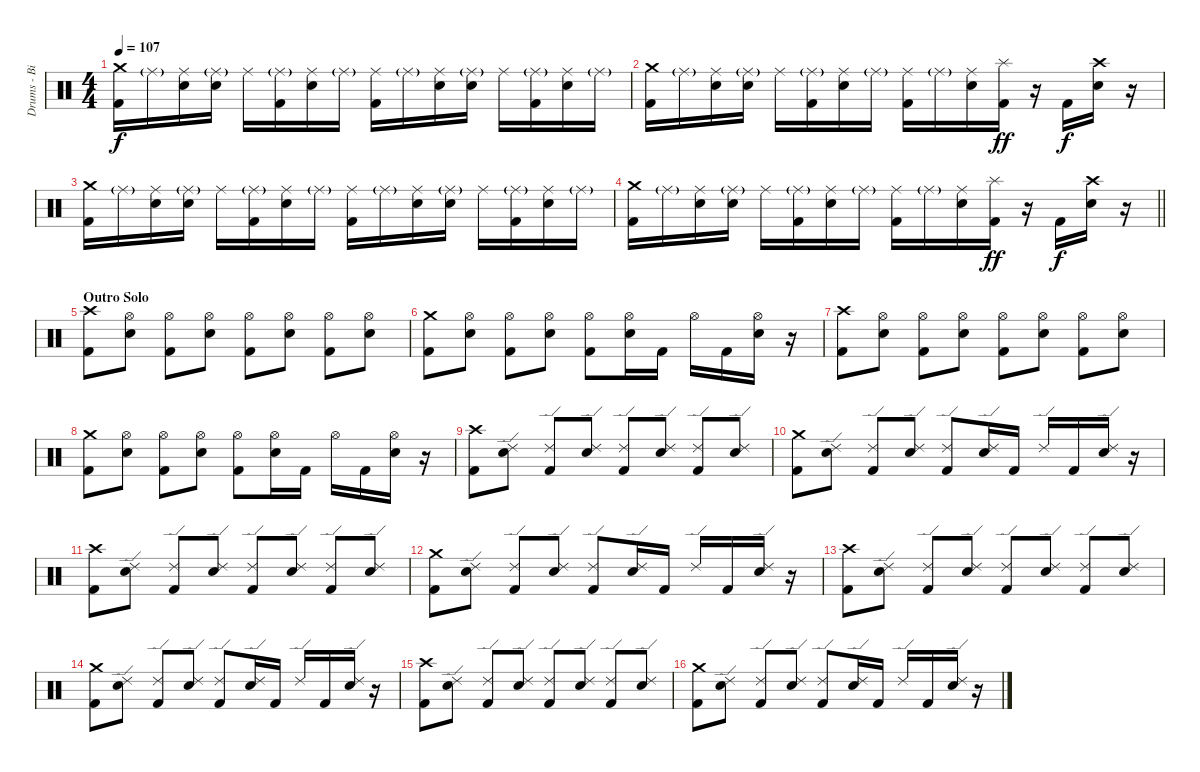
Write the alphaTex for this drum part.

\track ("Drums - Bill Stevenson" "Drums - Bi") {instrument percussion}
\staff {score}
\articulation defaults
\ts (4 4)
\tempo 107
\clef neutral
\ks c
("Crash medium (hit)" "Kick (hit) 2").16{dy f} "Ride (middle)"{g}.16 ("Ride (middle)" "Electric Snare (hit)").16 ("Ride (middle)"{g} "Electric Snare (hit)").16 "Ride (middle)".16 ("Ride (middle)"{g} "Kick (hit) 2").16 ("Ride (middle)" "Electric Snare (hit)").16 "Ride (middle)"{g}.16 ("Ride (middle)" "Kick (hit) 2").16 "Ride (middle)"{g}.16 ("Ride (middle)" "Electric Snare (hit)").16 ("Ride (middle)"{g} "Electric Snare (hit)").16 "Ride (middle)".16 ("Ride (middle)"{g} "Kick (hit) 2").16 ("Ride (middle)" "Electric Snare (hit)").16 "Ride (middle)"{g}.16 |
("Crash medium (hit)" "Kick (hit) 2").16 "Ride (middle)"{g}.16 ("Ride (middle)" "Electric Snare (hit)").16 ("Ride (middle)"{g} "Electric Snare (hit)").16 "Ride (middle)".16 ("Ride (middle)"{g} "Kick (hit) 2").16 ("Ride (middle)" "Electric Snare (hit)").16 "Ride (middle)"{g}.16 ("Ride (middle)" "Kick (hit) 2").16 "Ride (middle)"{g}.16 ("Ride (middle)" "Electric Snare (hit)").16 ("Splash (hit)" "Kick (hit) 2").16{dy ff} r.16 "Kick (hit) 2".16{dy f} ("Crash high (hit)" "Electric Snare (hit)").16 r.16 |
("Crash medium (hit)" "Kick (hit) 2").16 "Ride (middle)"{g}.16 ("Ride (middle)" "Electric Snare (hit)").16 ("Ride (middle)"{g} "Electric Snare (hit)").16 "Ride (middle)".16 ("Ride (middle)"{g} "Kick (hit) 2").16 ("Ride (middle)" "Electric Snare (hit)").16 "Ride (middle)"{g}.16 ("Ride (middle)" "Kick (hit) 2").16 "Ride (middle)"{g}.16 ("Ride (middle)" "Electric Snare (hit)").16 ("Ride (middle)"{g} "Electric Snare (hit)").16 "Ride (middle)".16 ("Ride (middle)"{g} "Kick (hit) 2").16 ("Ride (middle)" "Electric Snare (hit)").16 "Ride (middle)"{g}.16 |
\barLineRight lightlight
("Crash medium (hit)" "Kick (hit) 2").16 "Ride (middle)"{g}.16 ("Ride (middle)" "Electric Snare (hit)").16 ("Ride (middle)"{g} "Electric Snare (hit)").16 "Ride (middle)".16 ("Ride (middle)"{g} "Kick (hit) 2").16 ("Ride (middle)" "Electric Snare (hit)").16 "Ride (middle)"{g}.16 ("Ride (middle)" "Kick (hit) 2").16 "Ride (middle)"{g}.16 ("Ride (middle)" "Electric Snare (hit)").16 ("Splash (hit)" "Kick (hit) 2").16{dy ff} r.16 "Kick (hit) 2".16{dy f} ("Crash high (hit)" "Electric Snare (hit)").16 r.16 |
\section ("" "Outro Solo")
("Crash high (hit)" "Kick (hit) 2").8 ("Hi-Hat (open)" "Electric Snare (hit)").8 ("Hi-Hat (open)" "Kick (hit) 2").8 ("Hi-Hat (open)" "Electric Snare (hit)").8 ("Hi-Hat (open)" "Kick (hit) 2").8 ("Hi-Hat (open)" "Electric Snare (hit)").8 ("Hi-Hat (open)" "Kick (hit) 2").8 ("Hi-Hat (open)" "Electric Snare (hit)").8 |
("Crash medium (hit)" "Kick (hit) 2").8 ("Hi-Hat (open)" "Electric Snare (hit)").8 ("Hi-Hat (open)" "Kick (hit) 2").8 ("Hi-Hat (open)" "Electric Snare (hit)").8 ("Hi-Hat (open)" "Kick (hit) 2").8 ("Hi-Hat (open)" "Electric Snare (hit)").16 "Kick (hit) 2".16 "Hi-Hat (open)".16 "Kick (hit) 2".16 ("Hi-Hat (open)" "Electric Snare (hit)").16 r.16 |
("Crash high (hit)" "Kick (hit) 2").8 ("Hi-Hat (open)" "Electric Snare (hit)").8 ("Hi-Hat (open)" "Kick (hit) 2").8 ("Hi-Hat (open)" "Electric Snare (hit)").8 ("Hi-Hat (open)" "Kick (hit) 2").8 ("Hi-Hat (open)" "Electric Snare (hit)").8 ("Hi-Hat (open)" "Kick (hit) 2").8 ("Hi-Hat (open)" "Electric Snare (hit)").8 |
("Crash medium (hit)" "Kick (hit) 2").8 ("Hi-Hat (open)" "Electric Snare (hit)").8 ("Hi-Hat (open)" "Kick (hit) 2").8 ("Hi-Hat (open)" "Electric Snare (hit)").8 ("Hi-Hat (open)" "Kick (hit) 2").8 ("Hi-Hat (open)" "Electric Snare (hit)").16 "Kick (hit) 2".16 "Hi-Hat (open)".16 "Kick (hit) 2".16 ("Hi-Hat (open)" "Electric Snare (hit)").16 r.16 |
("Crash high (hit)" "Kick (hit) 2").8{volume 10} ("Ride (edge) 2" "Electric Snare (hit)").8 ("Ride (edge) 2" "Kick (hit) 2").8 ("Ride (edge) 2" "Electric Snare (hit)").8 ("Ride (edge) 2" "Kick (hit) 2").8 ("Ride (edge) 2" "Electric Snare (hit)").8 ("Ride (edge) 2" "Kick (hit) 2").8 ("Ride (edge) 2" "Electric Snare (hit)").8 |
("Crash medium (hit)" "Kick (hit) 2").8 ("Ride (edge) 2" "Electric Snare (hit)").8 ("Ride (edge) 2" "Kick (hit) 2").8 ("Ride (edge) 2" "Electric Snare (hit)").8 ("Ride (edge) 2" "Kick (hit) 2").8 ("Ride (edge) 2" "Electric Snare (hit)").16 "Kick (hit) 2".16 "Ride (edge) 2".16 "Kick (hit) 2".16 ("Ride (edge) 2" "Electric Snare (hit)").16 r.16 |
("Crash high (hit)" "Kick (hit) 2").8 ("Ride (edge) 2" "Electric Snare (hit)").8 ("Ride (edge) 2" "Kick (hit) 2").8 ("Ride (edge) 2" "Electric Snare (hit)").8 ("Ride (edge) 2" "Kick (hit) 2").8 ("Ride (edge) 2" "Electric Snare (hit)").8 ("Ride (edge) 2" "Kick (hit) 2").8 ("Ride (edge) 2" "Electric Snare (hit)").8 |
("Crash medium (hit)" "Kick (hit) 2").8 ("Ride (edge) 2" "Electric Snare (hit)").8 ("Ride (edge) 2" "Kick (hit) 2").8 ("Ride (edge) 2" "Electric Snare (hit)").8 ("Ride (edge) 2" "Kick (hit) 2").8 ("Ride (edge) 2" "Electric Snare (hit)").16 "Kick (hit) 2".16 "Ride (edge) 2".16 "Kick (hit) 2".16 ("Ride (edge) 2" "Electric Snare (hit)").16 r.16 |
("Crash high (hit)" "Kick (hit) 2").8{volume 3} ("Ride (edge) 2" "Electric Snare (hit)").8 ("Ride (edge) 2" "Kick (hit) 2").8 ("Ride (edge) 2" "Electric Snare (hit)").8 ("Ride (edge) 2" "Kick (hit) 2").8 ("Ride (edge) 2" "Electric Snare (hit)").8 ("Ride (edge) 2" "Kick (hit) 2").8 ("Ride (edge) 2" "Electric Snare (hit)").8 |
("Crash medium (hit)" "Kick (hit) 2").8 ("Ride (edge) 2" "Electric Snare (hit)").8 ("Ride (edge) 2" "Kick (hit) 2").8 ("Ride (edge) 2" "Electric Snare (hit)").8 ("Ride (edge) 2" "Kick (hit) 2").8 ("Ride (edge) 2" "Electric Snare (hit)").16 "Kick (hit) 2".16 "Ride (edge) 2".16 "Kick (hit) 2".16 ("Ride (edge) 2" "Electric Snare (hit)").16 r.16 |
("Crash high (hit)" "Kick (hit) 2").8 ("Ride (edge) 2" "Electric Snare (hit)").8 ("Ride (edge) 2" "Kick (hit) 2").8 ("Ride (edge) 2" "Electric Snare (hit)").8 ("Ride (edge) 2" "Kick (hit) 2").8 ("Ride (edge) 2" "Electric Snare (hit)").8 ("Ride (edge) 2" "Kick (hit) 2").8 ("Ride (edge) 2" "Electric Snare (hit)").8 |
("Crash medium (hit)" "Kick (hit) 2").8 ("Ride (edge) 2" "Electric Snare (hit)").8 ("Ride (edge) 2" "Kick (hit) 2").8 ("Ride (edge) 2" "Electric Snare (hit)").8 ("Ride (edge) 2" "Kick (hit) 2").8{volume 1} ("Ride (edge) 2" "Electric Snare (hit)").16 "Kick (hit) 2".16 "Ride (edge) 2".16 "Kick (hit) 2".16 ("Ride (edge) 2" "Electric Snare (hit)").16 r.16
